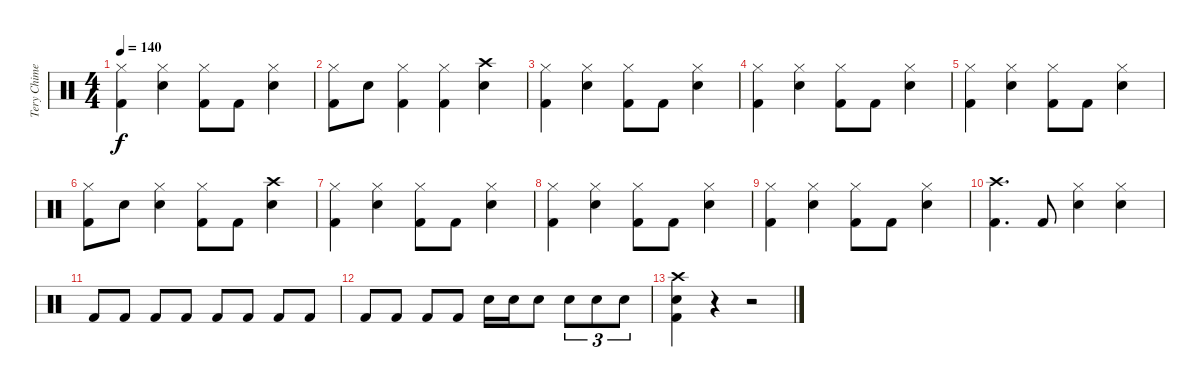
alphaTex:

\track ("Tery Chimes" "Tery Chime") {instrument percussion}
\staff {score}
\articulation defaults
\ts (4 4)
\tempo 140
\clef neutral
\ks c
("Hi-Hat (closed)" "Kick (hit) 2").4{dy f} ("Hi-Hat (closed)" "Electric Snare (hit)").4 ("Hi-Hat (closed)" "Kick (hit) 2").8 "Kick (hit) 2".8 ("Hi-Hat (closed)" "Electric Snare (hit)").4 |
("Hi-Hat (closed)" "Kick (hit) 2").8 "Electric Snare (hit)".8 ("Hi-Hat (closed)" "Kick (hit) 2").4 ("Hi-Hat (closed)" "Kick (hit) 2").4 ("Crash high (hit)" "Electric Snare (hit)").4 |
("Hi-Hat (closed)" "Kick (hit) 2").4 ("Hi-Hat (closed)" "Electric Snare (hit)").4 ("Hi-Hat (closed)" "Kick (hit) 2").8 "Kick (hit) 2".8 ("Hi-Hat (closed)" "Electric Snare (hit)").4 |
("Hi-Hat (closed)" "Kick (hit) 2").4 ("Hi-Hat (closed)" "Electric Snare (hit)").4 ("Hi-Hat (closed)" "Kick (hit) 2").8 "Kick (hit) 2".8 ("Hi-Hat (closed)" "Electric Snare (hit)").4 |
("Hi-Hat (closed)" "Kick (hit) 2").4 ("Hi-Hat (closed)" "Electric Snare (hit)").4 ("Hi-Hat (closed)" "Kick (hit) 2").8 "Kick (hit) 2".8 ("Hi-Hat (closed)" "Electric Snare (hit)").4 |
("Hi-Hat (closed)" "Kick (hit) 2").8 "Electric Snare (hit)".8 ("Hi-Hat (closed)" "Electric Snare (hit)").4 ("Hi-Hat (closed)" "Kick (hit) 2").8 "Kick (hit) 2".8 ("Crash high (hit)" "Electric Snare (hit)").4 |
("Hi-Hat (closed)" "Kick (hit) 2").4 ("Hi-Hat (closed)" "Electric Snare (hit)").4 ("Hi-Hat (closed)" "Kick (hit) 2").8 "Kick (hit) 2".8 ("Hi-Hat (closed)" "Electric Snare (hit)").4 |
("Hi-Hat (closed)" "Kick (hit) 2").4 ("Hi-Hat (closed)" "Electric Snare (hit)").4 ("Hi-Hat (closed)" "Kick (hit) 2").8 "Kick (hit) 2".8 ("Hi-Hat (closed)" "Electric Snare (hit)").4 |
("Hi-Hat (closed)" "Kick (hit) 2").4 ("Hi-Hat (closed)" "Electric Snare (hit)").4 ("Hi-Hat (closed)" "Kick (hit) 2").8 "Kick (hit) 2".8 ("Hi-Hat (closed)" "Electric Snare (hit)").4 |
("Crash high (hit)" "Kick (hit) 2").4{d} "Kick (hit) 2".8 ("Hi-Hat (closed)" "Electric Snare (hit)").4 ("Hi-Hat (closed)" "Electric Snare (hit)").4 |
"Kick (hit) 2".8 "Kick (hit) 2".8 "Kick (hit) 2".8 "Kick (hit) 2".8 "Kick (hit) 2".8 "Kick (hit) 2".8 "Kick (hit) 2".8 "Kick (hit) 2".8 |
"Kick (hit) 2".8 "Kick (hit) 2".8 "Kick (hit) 2".8 "Kick (hit) 2".8 "Electric Snare (hit)".16 "Electric Snare (hit)".16 "Electric Snare (hit)".8 "Electric Snare (hit)".8{tu (3 2)} "Electric Snare (hit)".8{tu (3 2)} "Electric Snare (hit)".8{tu (3 2)} |
("Crash high (hit)" "Electric Snare (hit)" "Kick (hit) 2").4 r.4 r.2
